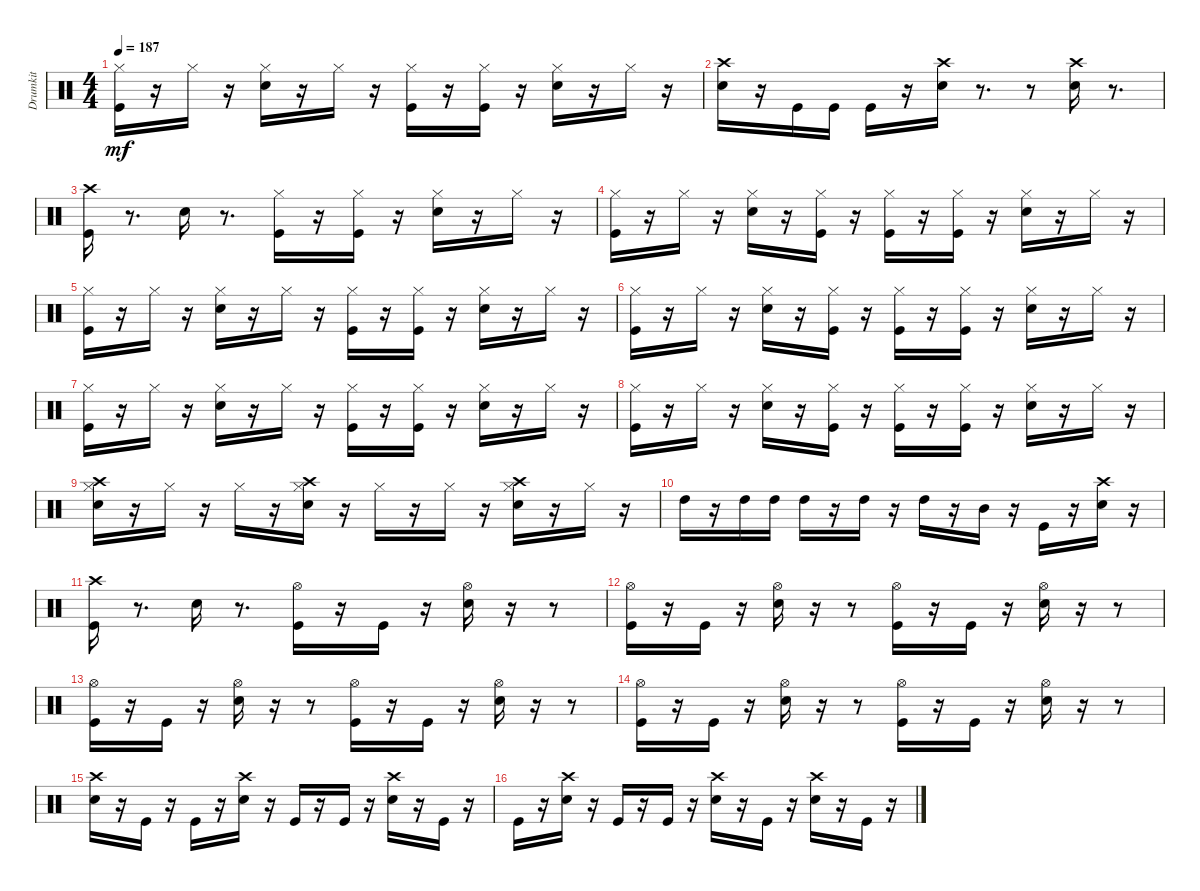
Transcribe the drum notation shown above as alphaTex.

\track ("Drumkit" "Drumkit") {instrument percussion}
\staff {score}
\articulation defaults
\ts (4 4)
\tempo 187
\clef neutral
\ks c
("Kick (hit)" "Hi-Hat (closed)").16{dy mf} r.16 "Hi-Hat (closed)".16 r.16 ("Snare (hit) 2" "Hi-Hat (closed)").16 r.16 "Hi-Hat (closed)".16 r.16 ("Kick (hit)" "Hi-Hat (closed)").16 r.16 ("Kick (hit)" "Hi-Hat (closed)").16 r.16 ("Snare (hit) 2" "Hi-Hat (closed)").16 r.16 "Hi-Hat (closed)".16 r.16 |
("Snare (hit) 2" "Crash high (hit)").16 r.16 "Kick (hit)".16 "Kick (hit)".16 "Kick (hit)".16 r.16 ("Crash high (hit)" "Snare (hit) 2").16 r.8{d} r.8 ("Crash high (hit)" "Snare (hit) 2").16 r.8{d} |
("Crash high (hit)" "Kick (hit)").16 r.8{d} "Snare (hit) 2".16 r.8{d} ("Kick (hit)" "Hi-Hat (closed)").16 r.16 ("Kick (hit)" "Hi-Hat (closed)").16 r.16 ("Snare (hit) 2" "Hi-Hat (closed)").16 r.16 "Hi-Hat (closed)".16 r.16 |
("Kick (hit)" "Hi-Hat (closed)").16 r.16 "Hi-Hat (closed)".16 r.16 ("Snare (hit) 2" "Hi-Hat (closed)").16 r.16 ("Kick (hit)" "Hi-Hat (closed)").16 r.16 ("Kick (hit)" "Hi-Hat (closed)").16 r.16 ("Kick (hit)" "Hi-Hat (closed)").16 r.16 ("Snare (hit) 2" "Hi-Hat (closed)").16 r.16 "Hi-Hat (closed)".16 r.16 |
("Kick (hit)" "Hi-Hat (closed)").16 r.16 "Hi-Hat (closed)".16 r.16 ("Snare (hit) 2" "Hi-Hat (closed)").16 r.16 "Hi-Hat (closed)".16 r.16 ("Kick (hit)" "Hi-Hat (closed)").16 r.16 ("Kick (hit)" "Hi-Hat (closed)").16 r.16 ("Snare (hit) 2" "Hi-Hat (closed)").16 r.16 "Hi-Hat (closed)".16 r.16 |
("Kick (hit)" "Hi-Hat (closed)").16 r.16 "Hi-Hat (closed)".16 r.16 ("Snare (hit) 2" "Hi-Hat (closed)").16 r.16 ("Kick (hit)" "Hi-Hat (closed)").16 r.16 ("Kick (hit)" "Hi-Hat (closed)").16 r.16 ("Kick (hit)" "Hi-Hat (closed)").16 r.16 ("Snare (hit) 2" "Hi-Hat (closed)").16 r.16 "Hi-Hat (closed)".16 r.16 |
("Kick (hit)" "Hi-Hat (closed)").16 r.16 "Hi-Hat (closed)".16 r.16 ("Snare (hit) 2" "Hi-Hat (closed)").16 r.16 "Hi-Hat (closed)".16 r.16 ("Kick (hit)" "Hi-Hat (closed)").16 r.16 ("Kick (hit)" "Hi-Hat (closed)").16 r.16 ("Snare (hit) 2" "Hi-Hat (closed)").16 r.16 "Hi-Hat (closed)".16 r.16 |
("Hi-Hat (closed)" "Kick (hit)").16 r.16 "Hi-Hat (closed)".16 r.16 ("Snare (hit) 2" "Hi-Hat (closed)").16 r.16 ("Kick (hit)" "Hi-Hat (closed)").16 r.16 ("Kick (hit)" "Hi-Hat (closed)").16 r.16 ("Kick (hit)" "Hi-Hat (closed)").16 r.16 ("Snare (hit) 2" "Hi-Hat (closed)").16 r.16 "Hi-Hat (closed)".16 r.16 |
("Crash high (hit)" "Snare (hit) 2" "Hi-Hat (closed)").16 r.16 "Hi-Hat (closed)".16 r.16 "Hi-Hat (closed)".16 r.16 ("Crash high (hit)" "Snare (hit) 2" "Hi-Hat (closed)").16 r.16 "Hi-Hat (closed)".16 r.16 "Hi-Hat (closed)".16 r.16 ("Crash high (hit)" "Snare (hit) 2" "Hi-Hat (closed)").16 r.16 "Hi-Hat (closed)".16 r.16 |
"High Tom (hit)".16 r.16 "High Tom (hit)".16 "High Tom (hit)".16 "High Tom (hit)".16 r.16 "High Tom (hit)".16 r.16 "High Tom (hit)".16 r.16 "Mid Tom (hit)".16 r.16 "Kick (hit)".16 r.16 ("Snare (hit) 2" "Crash high (hit)").16 r.16 |
("Kick (hit)" "Crash high (hit)").16 r.8{d} "Snare (hit) 2".16 r.8{d} ("Kick (hit)" "Hi-Hat (open)").16 r.16 "Kick (hit)".16 r.16 ("Snare (hit) 2" "Hi-Hat (open)").16 r.16 r.8 |
("Kick (hit)" "Hi-Hat (open)").16 r.16 "Kick (hit)".16 r.16 ("Snare (hit) 2" "Hi-Hat (open)").16 r.16 r.8 ("Kick (hit)" "Hi-Hat (open)").16 r.16 "Kick (hit)".16 r.16 ("Snare (hit) 2" "Hi-Hat (open)").16 r.16 r.8 |
("Kick (hit)" "Hi-Hat (open)").16 r.16 "Kick (hit)".16 r.16 ("Snare (hit) 2" "Hi-Hat (open)").16 r.16 r.8 ("Kick (hit)" "Hi-Hat (open)").16 r.16 "Kick (hit)".16 r.16 ("Snare (hit) 2" "Hi-Hat (open)").16 r.16 r.8 |
("Kick (hit)" "Hi-Hat (open)").16 r.16 "Kick (hit)".16 r.16 ("Snare (hit) 2" "Hi-Hat (open)").16 r.16 r.8 ("Kick (hit)" "Hi-Hat (open)").16 r.16 "Kick (hit)".16 r.16 ("Snare (hit) 2" "Hi-Hat (open)").16 r.16 r.8 |
("Snare (hit) 2" "Crash high (hit)").16 r.16 "Kick (hit)".16 r.16 "Kick (hit)".16 r.16 ("Snare (hit) 2" "Crash high (hit)").16 r.16 "Kick (hit)".16 r.16 "Kick (hit)".16 r.16 ("Snare (hit) 2" "Crash high (hit)").16 r.16 "Kick (hit)".16 r.16 |
"Kick (hit)".16 r.16 ("Snare (hit) 2" "Crash high (hit)").16 r.16 "Kick (hit)".16 r.16 "Kick (hit)".16 r.16 ("Snare (hit) 2" "Crash high (hit)").16 r.16 "Kick (hit)".16 r.16 ("Snare (hit) 2" "Crash high (hit)").16 r.16 "Kick (hit)".16 r.16
